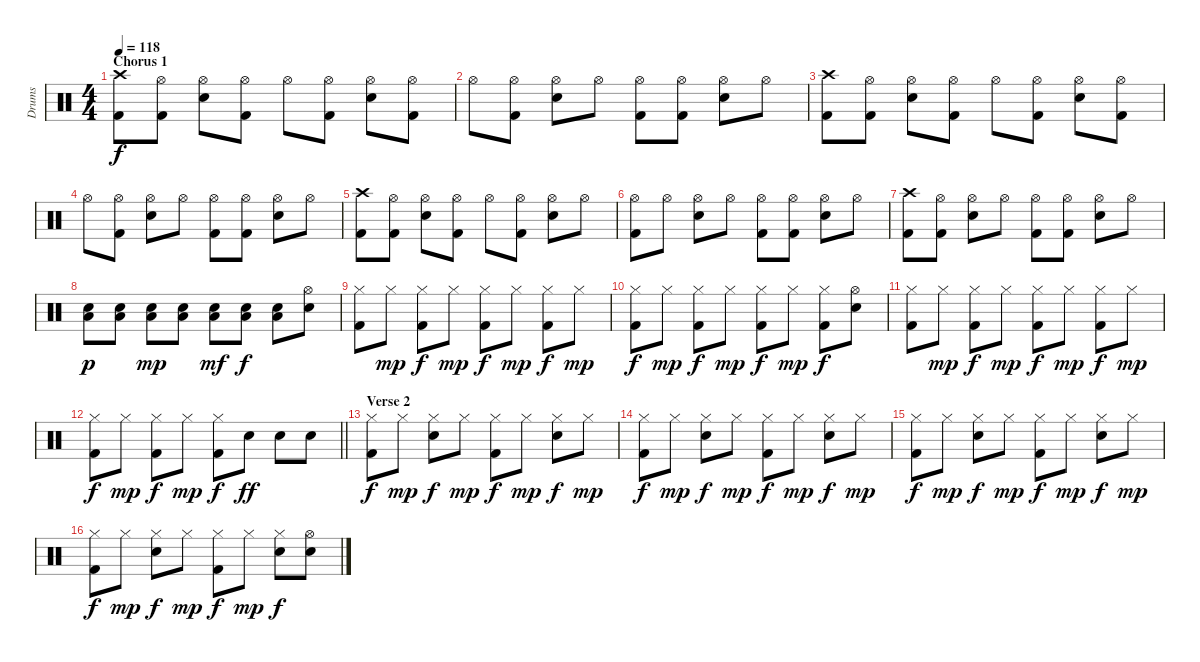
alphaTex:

\track ("Drums" "Drums") {instrument percussion}
\staff {score}
\articulation defaults
\ts (4 4)
\section ("" "Chorus 1")
\tempo 118
\clef neutral
\ks c
("Crash high (hit)" "Kick (hit) 2").8{dy f} ("Hi-Hat (open)" "Kick (hit) 2").8 ("Hi-Hat (open)" "Snare (hit) 2").8 ("Hi-Hat (open)" "Kick (hit) 2").8 "Hi-Hat (open)".8 ("Hi-Hat (open)" "Kick (hit) 2").8 ("Hi-Hat (open)" "Snare (hit) 2").8 ("Hi-Hat (open)" "Kick (hit) 2").8 |
"Hi-Hat (open)".8 ("Hi-Hat (open)" "Kick (hit) 2").8 ("Hi-Hat (open)" "Snare (hit) 2").8 "Hi-Hat (open)".8 ("Hi-Hat (open)" "Kick (hit) 2").8 ("Hi-Hat (open)" "Kick (hit) 2").8 ("Hi-Hat (open)" "Snare (hit) 2").8 "Hi-Hat (open)".8 |
("Crash high (hit)" "Kick (hit) 2").8 ("Hi-Hat (open)" "Kick (hit) 2").8 ("Hi-Hat (open)" "Snare (hit) 2").8 ("Hi-Hat (open)" "Kick (hit) 2").8 "Hi-Hat (open)".8 ("Hi-Hat (open)" "Kick (hit) 2").8 ("Hi-Hat (open)" "Snare (hit) 2").8 ("Hi-Hat (open)" "Kick (hit) 2").8 |
"Hi-Hat (open)".8 ("Hi-Hat (open)" "Kick (hit) 2").8 ("Hi-Hat (open)" "Snare (hit) 2").8 "Hi-Hat (open)".8 ("Hi-Hat (open)" "Kick (hit) 2").8 ("Hi-Hat (open)" "Kick (hit) 2").8 ("Hi-Hat (open)" "Snare (hit) 2").8 "Hi-Hat (open)".8 |
("Crash high (hit)" "Kick (hit) 2").8 ("Hi-Hat (open)" "Kick (hit) 2").8 ("Hi-Hat (open)" "Snare (hit) 2").8 ("Hi-Hat (open)" "Kick (hit) 2").8 "Hi-Hat (open)".8 ("Hi-Hat (open)" "Kick (hit) 2").8 ("Hi-Hat (open)" "Snare (hit) 2").8 "Hi-Hat (open)".8 |
("Hi-Hat (open)" "Kick (hit) 2").8 "Hi-Hat (open)".8 ("Hi-Hat (open)" "Snare (hit) 2").8 "Hi-Hat (open)".8 ("Hi-Hat (open)" "Kick (hit) 2").8 ("Hi-Hat (open)" "Kick (hit) 2").8 ("Hi-Hat (open)" "Snare (hit) 2").8 "Hi-Hat (open)".8 |
("Crash high (hit)" "Kick (hit) 2").8 ("Hi-Hat (open)" "Kick (hit) 2").8 ("Hi-Hat (open)" "Snare (hit) 2").8 "Hi-Hat (open)".8 ("Hi-Hat (open)" "Kick (hit) 2").8 ("Hi-Hat (open)" "Kick (hit) 2").8 ("Hi-Hat (open)" "Snare (hit) 2").8 "Hi-Hat (open)".8 |
("Snare (hit) 2" "Low Tom (hit)").8{dy p} ("Snare (hit) 2" "Low Tom (hit)").8 ("Snare (hit) 2" "Low Tom (hit)").8{dy mp} ("Snare (hit) 2" "Low Tom (hit)").8 ("Snare (hit) 2" "Low Tom (hit)").8{dy mf} ("Snare (hit) 2" "Low Tom (hit)").8{dy f} ("Snare (hit) 2" "Low Tom (hit)").8 ("Hi-Hat (open)" "Snare (hit) 2").8 |
("Hi-Hat (closed)" "Kick (hit) 2").8 "Hi-Hat (closed)".8{dy mp} ("Hi-Hat (closed)" "Kick (hit) 2").8{dy f} "Hi-Hat (closed)".8{dy mp} ("Hi-Hat (closed)" "Kick (hit) 2").8{dy f} "Hi-Hat (closed)".8{dy mp} ("Hi-Hat (closed)" "Kick (hit) 2").8{dy f} "Hi-Hat (closed)".8{dy mp} |
("Hi-Hat (closed)" "Kick (hit) 2").8{dy f} "Hi-Hat (closed)".8{dy mp} ("Hi-Hat (closed)" "Kick (hit) 2").8{dy f} "Hi-Hat (closed)".8{dy mp} ("Hi-Hat (closed)" "Kick (hit) 2").8{dy f} "Hi-Hat (closed)".8{dy mp} ("Hi-Hat (closed)" "Kick (hit) 2").8{dy f} ("Hi-Hat (open)" "Snare (hit) 2").8 |
("Hi-Hat (closed)" "Kick (hit) 2").8 "Hi-Hat (closed)".8{dy mp} ("Hi-Hat (closed)" "Kick (hit) 2").8{dy f} "Hi-Hat (closed)".8{dy mp} ("Hi-Hat (closed)" "Kick (hit) 2").8{dy f} "Hi-Hat (closed)".8{dy mp} ("Hi-Hat (closed)" "Kick (hit) 2").8{dy f} "Hi-Hat (closed)".8{dy mp} |
\barLineRight lightlight
("Hi-Hat (closed)" "Kick (hit) 2").8{dy f} "Hi-Hat (closed)".8{dy mp} ("Hi-Hat (closed)" "Kick (hit) 2").8{dy f} "Hi-Hat (closed)".8{dy mp} ("Hi-Hat (closed)" "Kick (hit) 2").8{dy f} "Hand Clap (hit)".8{dy ff} "Hand Clap (hit)".8 "Hand Clap (hit)".8 |
\section ("" "Verse 2")
("Hi-Hat (closed)" "Kick (hit) 2").8{dy f} "Hi-Hat (closed)".8{dy mp} ("Hi-Hat (closed)" "Snare (hit) 2").8{dy f} "Hi-Hat (closed)".8{dy mp} ("Hi-Hat (closed)" "Kick (hit) 2").8{dy f} "Hi-Hat (closed)".8{dy mp} ("Hi-Hat (closed)" "Snare (hit) 2").8{dy f} "Hi-Hat (closed)".8{dy mp} |
("Hi-Hat (closed)" "Kick (hit) 2").8{dy f} "Hi-Hat (closed)".8{dy mp} ("Hi-Hat (closed)" "Snare (hit) 2").8{dy f} "Hi-Hat (closed)".8{dy mp} ("Hi-Hat (closed)" "Kick (hit) 2").8{dy f} "Hi-Hat (closed)".8{dy mp} ("Hi-Hat (closed)" "Snare (hit) 2").8{dy f} "Hi-Hat (closed)".8{dy mp} |
("Hi-Hat (closed)" "Kick (hit) 2").8{dy f} "Hi-Hat (closed)".8{dy mp} ("Hi-Hat (closed)" "Snare (hit) 2").8{dy f} "Hi-Hat (closed)".8{dy mp} ("Hi-Hat (closed)" "Kick (hit) 2").8{dy f} "Hi-Hat (closed)".8{dy mp} ("Hi-Hat (closed)" "Snare (hit) 2").8{dy f} "Hi-Hat (closed)".8{dy mp} |
("Hi-Hat (closed)" "Kick (hit) 2").8{dy f} "Hi-Hat (closed)".8{dy mp} ("Hi-Hat (closed)" "Snare (hit) 2").8{dy f} "Hi-Hat (closed)".8{dy mp} ("Hi-Hat (closed)" "Kick (hit) 2").8{dy f} "Hi-Hat (closed)".8{dy mp} ("Hi-Hat (closed)" "Snare (hit) 2").8{dy f} ("Hi-Hat (open)" "Snare (hit) 2").8
